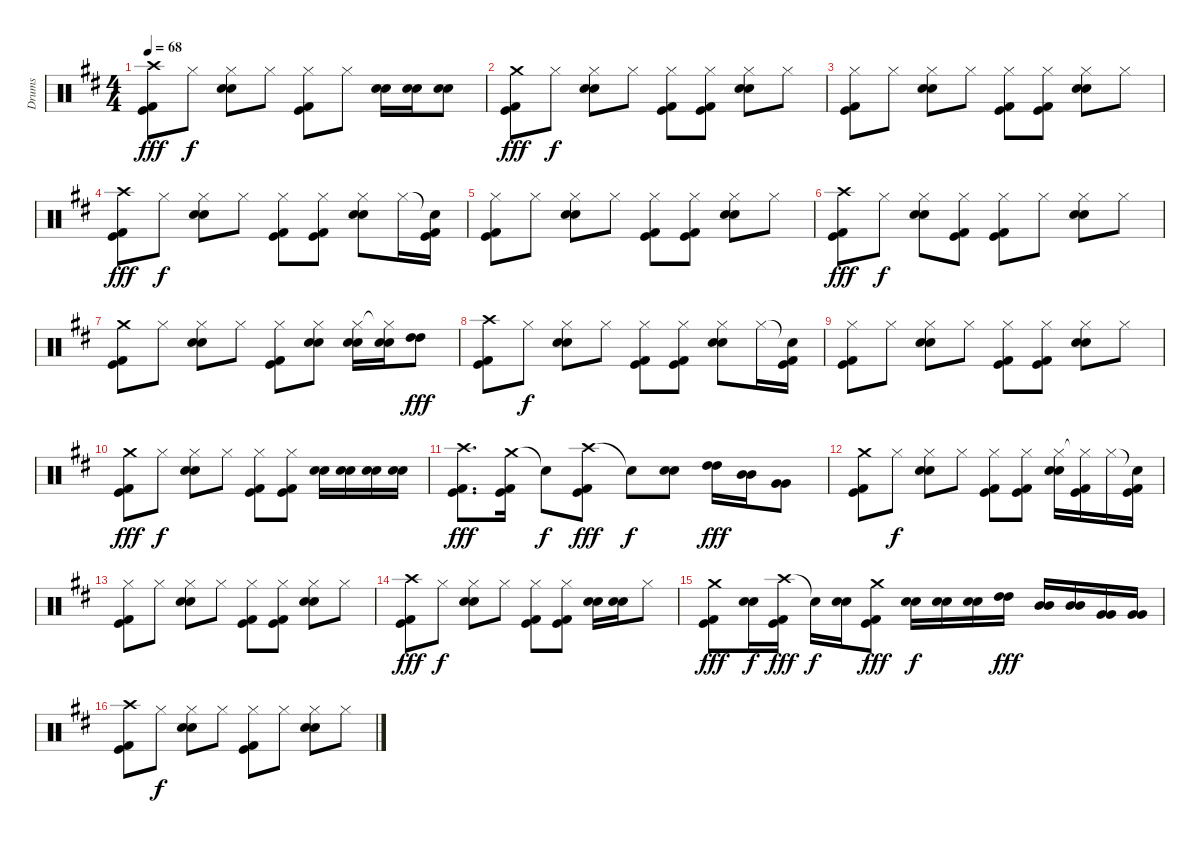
\track ("Drums" "Drums") {instrument percussion}
\staff {score}
\articulation defaults
\ts (4 4)
\tempo 68
\clef neutral
\ks d
("Crash high (hit)" "Kick (hit)" "Kick (hit) 2").8{dy fff} "Hi-Hat (closed)".8{dy f} ("Hi-Hat (closed)" "Electric Snare (hit)" "Snare (hit) 2").8 "Hi-Hat (closed)".8 ("Hi-Hat (closed)" "Kick (hit)" "Kick (hit) 2").8 "Hi-Hat (closed)".8 ("Electric Snare (hit)" "Snare (hit) 2").16 ("Electric Snare (hit)" "Snare (hit) 2").16 ("Electric Snare (hit)" "Snare (hit) 2").8 |
("Crash medium (hit)" "Kick (hit)" "Kick (hit) 2").8{dy fff} "Hi-Hat (closed)".8{dy f} ("Hi-Hat (closed)" "Electric Snare (hit)" "Snare (hit) 2").8 "Hi-Hat (closed)".8 ("Hi-Hat (closed)" "Kick (hit)" "Kick (hit) 2").8 ("Hi-Hat (closed)" "Kick (hit)" "Kick (hit) 2").8 ("Hi-Hat (closed)" "Electric Snare (hit)" "Snare (hit) 2").8 "Hi-Hat (closed)".8 |
("Hi-Hat (closed)" "Kick (hit)" "Kick (hit) 2").8 "Hi-Hat (closed)".8 ("Hi-Hat (closed)" "Electric Snare (hit)" "Snare (hit) 2").8 "Hi-Hat (closed)".8 ("Hi-Hat (closed)" "Kick (hit)" "Kick (hit) 2").8 ("Hi-Hat (closed)" "Kick (hit)" "Kick (hit) 2").8 ("Hi-Hat (closed)" "Electric Snare (hit)" "Snare (hit) 2").8 "Hi-Hat (closed)".8 |
("Crash high (hit)" "Kick (hit)" "Kick (hit) 2").8{dy fff} "Hi-Hat (closed)".8{dy f} ("Hi-Hat (closed)" "Electric Snare (hit)" "Snare (hit) 2").8 "Hi-Hat (closed)".8 ("Hi-Hat (closed)" "Kick (hit)" "Kick (hit) 2").8 ("Hi-Hat (closed)" "Kick (hit)" "Kick (hit) 2").8 ("Hi-Hat (closed)" "Electric Snare (hit)" "Snare (hit) 2").8 "Hi-Hat (closed)".16 ("Snare (hit)"{t} "Kick (hit)" "Kick (hit) 2").16 |
("Hi-Hat (closed)" "Kick (hit)" "Kick (hit) 2").8 "Hi-Hat (closed)".8 ("Hi-Hat (closed)" "Electric Snare (hit)" "Snare (hit) 2").8 "Hi-Hat (closed)".8 ("Hi-Hat (closed)" "Kick (hit)" "Kick (hit) 2").8 ("Hi-Hat (closed)" "Kick (hit)" "Kick (hit) 2").8 ("Hi-Hat (closed)" "Electric Snare (hit)" "Snare (hit) 2").8 "Hi-Hat (closed)".8 |
("Crash high (hit)" "Kick (hit)" "Kick (hit) 2").8{dy fff} "Hi-Hat (closed)".8{dy f} ("Hi-Hat (closed)" "Electric Snare (hit)" "Snare (hit) 2").8 ("Hi-Hat (closed)" "Kick (hit)" "Kick (hit) 2").8 ("Hi-Hat (closed)" "Kick (hit)" "Kick (hit) 2").8 "Hi-Hat (closed)".8 ("Hi-Hat (closed)" "Electric Snare (hit)" "Snare (hit) 2").8 "Hi-Hat (closed)".8 |
("Crash medium (hit)" "Kick (hit)" "Kick (hit) 2").8 "Hi-Hat (closed)".8 ("Hi-Hat (closed)" "Electric Snare (hit)" "Snare (hit) 2").8 "Hi-Hat (closed)".8 ("Hi-Hat (closed)" "Kick (hit)" "Kick (hit) 2").8 ("Hi-Hat (closed)" "Electric Snare (hit)" "Snare (hit) 2").8 ("Hi-Hat (closed)" "Electric Snare (hit)" "Snare (hit) 2").16 ("Hi-Hat (closed)"{t} "Electric Snare (hit)" "Snare (hit) 2").16 ("High Tom (hit)" "High Tom (hit)").8{dy fff} |
("Crash high (hit)" "Kick (hit)" "Kick (hit) 2").8 "Hi-Hat (closed)".8{dy f} ("Hi-Hat (closed)" "Electric Snare (hit)" "Snare (hit) 2").8 "Hi-Hat (closed)".8 ("Hi-Hat (closed)" "Kick (hit)" "Kick (hit) 2").8 ("Hi-Hat (closed)" "Kick (hit)" "Kick (hit) 2").8 ("Hi-Hat (closed)" "Electric Snare (hit)" "Snare (hit) 2").8 "Hi-Hat (closed)".16 ("Snare (hit)"{t} "Kick (hit)" "Kick (hit) 2").16 |
("Hi-Hat (closed)" "Kick (hit)" "Kick (hit) 2").8 "Hi-Hat (closed)".8 ("Hi-Hat (closed)" "Electric Snare (hit)" "Snare (hit) 2").8 "Hi-Hat (closed)".8 ("Hi-Hat (closed)" "Kick (hit)" "Kick (hit) 2").8 ("Hi-Hat (closed)" "Kick (hit)" "Kick (hit) 2").8 ("Hi-Hat (closed)" "Electric Snare (hit)" "Snare (hit) 2").8 "Hi-Hat (closed)".8 |
("Crash medium (hit)" "Kick (hit)" "Kick (hit) 2").8{dy fff} "Hi-Hat (closed)".8{dy f} ("Hi-Hat (closed)" "Electric Snare (hit)" "Snare (hit) 2").8 "Hi-Hat (closed)".8 ("Hi-Hat (closed)" "Kick (hit)" "Kick (hit) 2").8 ("Hi-Hat (closed)" "Kick (hit)" "Kick (hit) 2").8 ("Electric Snare (hit)" "Snare (hit) 2").16 ("Electric Snare (hit)" "Snare (hit) 2").16 ("Electric Snare (hit)" "Snare (hit) 2").16 ("Electric Snare (hit)" "Snare (hit) 2").16 |
("Crash high (hit)" "Kick (hit)" "Kick (hit) 2").8{d dy fff} ("Crash medium (hit)" "Kick (hit)" "Kick (hit) 2").16 "Snare (hit)"{t}.8{dy f} ("Crash high (hit)" "Kick (hit)" "Kick (hit) 2").8{dy fff} "Snare (hit)"{t}.8{dy f} ("Electric Snare (hit)" "Snare (hit) 2").8 ("High Tom (hit)" "High Tom (hit)").16{dy fff} ("Mid Tom (hit)" "Mid Tom (hit)").16 ("Very Low Tom (hit)" "Very Low Tom (hit)").8 |
("Crash medium (hit)" "Kick (hit)" "Kick (hit) 2").8 "Hi-Hat (closed)".8{dy f} ("Hi-Hat (closed)" "Electric Snare (hit)" "Snare (hit) 2").8 "Hi-Hat (closed)".8 ("Hi-Hat (closed)" "Kick (hit)" "Kick (hit) 2").8 ("Hi-Hat (closed)" "Kick (hit)" "Kick (hit) 2").8 ("Hi-Hat (closed)" "Electric Snare (hit)" "Snare (hit) 2").16 ("Hi-Hat (closed)"{t} "Kick (hit)" "Kick (hit) 2").16 "Hi-Hat (closed)".16 ("Snare (hit)"{t} "Kick (hit)" "Kick (hit) 2").16 |
("Hi-Hat (closed)" "Kick (hit)" "Kick (hit) 2").8 "Hi-Hat (closed)".8 ("Hi-Hat (closed)" "Electric Snare (hit)" "Snare (hit) 2").8 "Hi-Hat (closed)".8 ("Hi-Hat (closed)" "Kick (hit)" "Kick (hit) 2").8 ("Hi-Hat (closed)" "Kick (hit)" "Kick (hit) 2").8 ("Hi-Hat (closed)" "Electric Snare (hit)" "Snare (hit) 2").8 "Hi-Hat (closed)".8 |
("Crash high (hit)" "Kick (hit)" "Kick (hit) 2").8{dy fff} "Hi-Hat (closed)".8{dy f} ("Hi-Hat (closed)" "Electric Snare (hit)" "Snare (hit) 2").8 "Hi-Hat (closed)".8 ("Hi-Hat (closed)" "Kick (hit)" "Kick (hit) 2").8 ("Hi-Hat (closed)" "Kick (hit)" "Kick (hit) 2").8 ("Electric Snare (hit)" "Snare (hit) 2").16 ("Electric Snare (hit)" "Snare (hit) 2").16 "Hi-Hat (closed)".8 |
("Crash medium (hit)" "Kick (hit)" "Kick (hit) 2").8{dy fff} ("Electric Snare (hit)" "Snare (hit) 2").16{dy f} ("Crash high (hit)" "Kick (hit)" "Kick (hit) 2").16{dy fff} "Snare (hit)"{t}.16{dy f} ("Electric Snare (hit)" "Snare (hit) 2").16 ("Crash medium (hit)" "Kick (hit)" "Kick (hit) 2").8{dy fff} ("Electric Snare (hit)" "Snare (hit) 2").16{dy f} ("Electric Snare (hit)" "Snare (hit) 2").16 ("Electric Snare (hit)" "Snare (hit) 2").16 ("High Tom (hit)" "High Tom (hit)").16{dy fff} ("Mid Tom (hit)" "Mid Tom (hit)").16 ("Mid Tom (hit)" "Mid Tom (hit)").16 ("Very Low Tom (hit)" "Very Low Tom (hit)").16 ("Very Low Tom (hit)" "Very Low Tom (hit)").16 |
("Crash high (hit)" "Kick (hit)" "Kick (hit) 2").8 "Hi-Hat (closed)".8{dy f} ("Hi-Hat (closed)" "Electric Snare (hit)" "Snare (hit) 2").8 "Hi-Hat (closed)".8 ("Hi-Hat (closed)" "Kick (hit)" "Kick (hit) 2").8 "Hi-Hat (closed)".8 ("Hi-Hat (closed)" "Electric Snare (hit)" "Snare (hit) 2").8 "Hi-Hat (closed)".8
